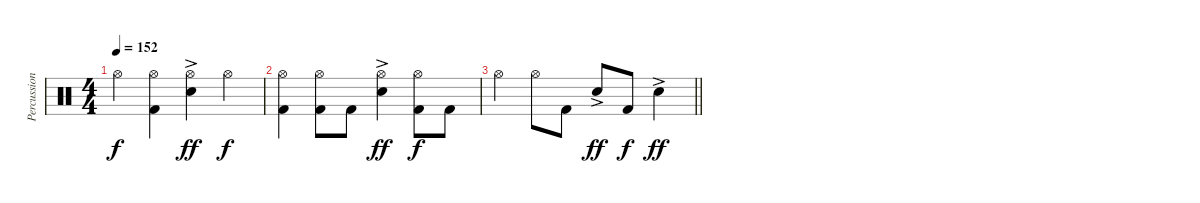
\track ("Percussion" "Percussion") {instrument percussion}
\staff {score}
\articulation defaults
\ts (4 4)
\tempo 152
\clef neutral
\ks c "Hi-Hat (open)".4{dy f}
("Hi-Hat (open)" "Kick (hit) 2").4 ("Hi-Hat (open)" "Electric Snare (hit)"{ac}).4{dy ff} "Hi-Hat (open)".4{dy f} |
("Hi-Hat (open)" "Kick (hit) 2").4 ("Hi-Hat (open)" "Kick (hit) 2").8 "Kick (hit) 2".8 ("Hi-Hat (open)" "Electric Snare (hit)"{ac}).4{dy ff} ("Hi-Hat (open)" "Kick (hit) 2").8{dy f} "Kick (hit) 2".8 |
\barLineRight lightlight "Hi-Hat (open)".4 "Hi-Hat (open)".8 "Kick (hit) 2".8 "Electric Snare (hit)"{ac}.8{dy ff} "Kick (hit) 2".8{dy f} "Electric Snare (hit)"{ac}.4{dy ff}
